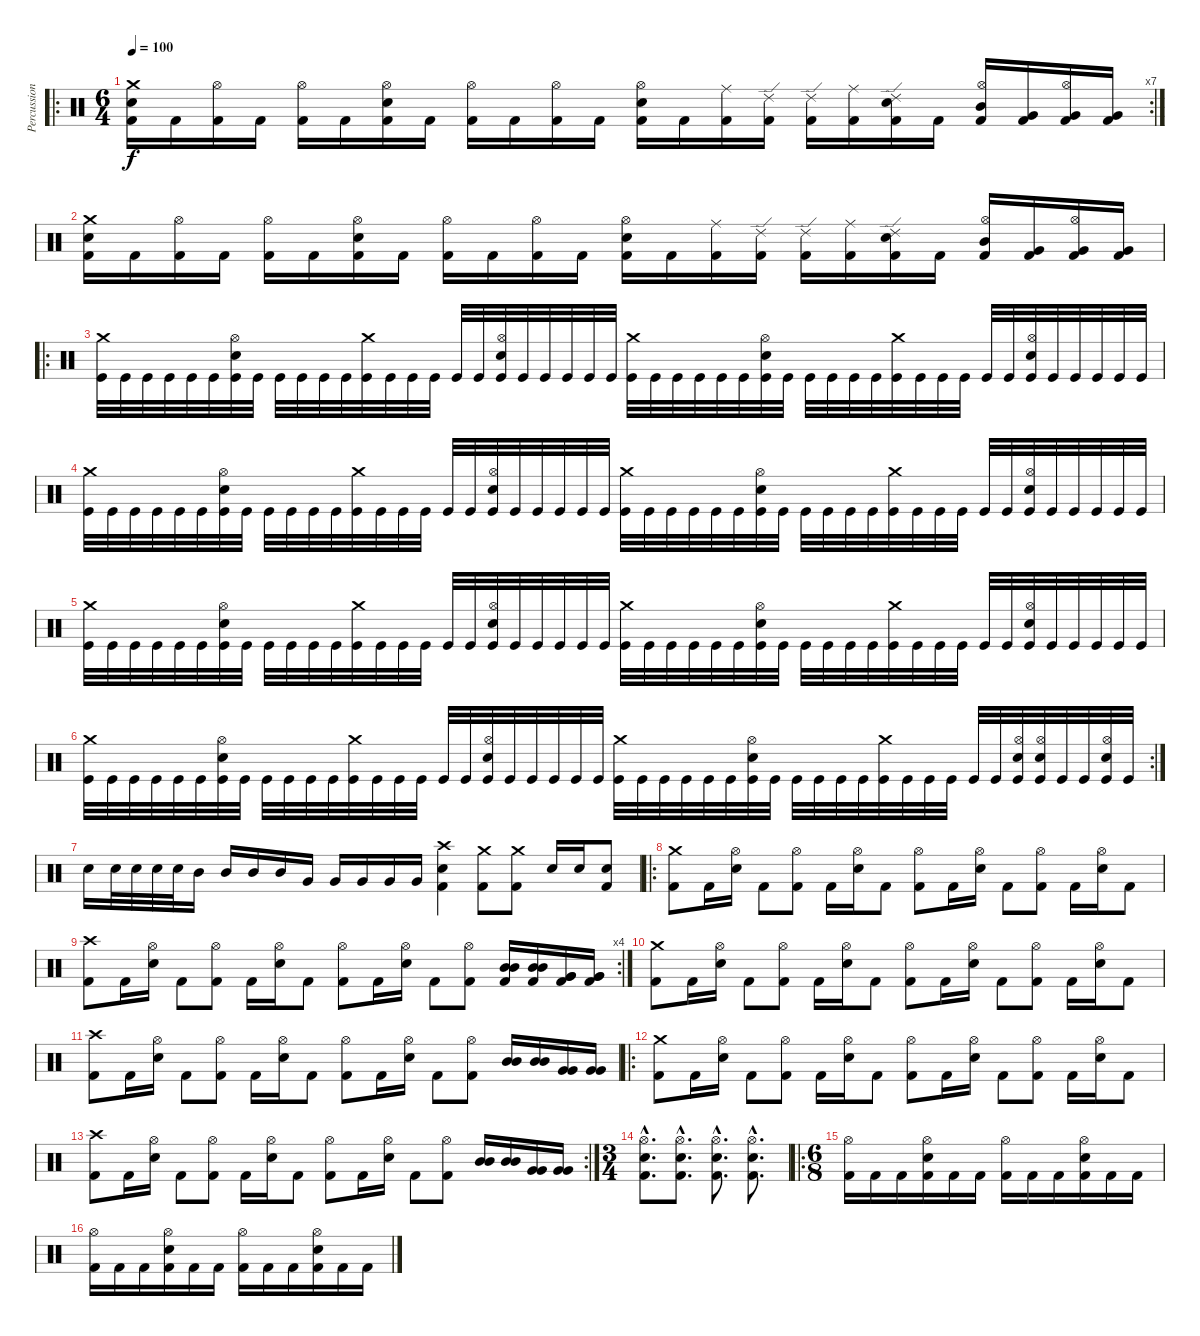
\track ("Percussion" "Percussion") {instrument percussion}
\staff {score}
\articulation defaults
\ro
\rc 7
\ts (6 4)
\tempo 100
\clef neutral
\ks c
("Crash medium (hit)" "Electric Snare (hit)" "Kick (hit) 2").16{dy f} "Kick (hit) 2".16 ("Hi-Hat (open)" "Kick (hit) 2").16 "Kick (hit) 2".16 ("Hi-Hat (open)" "Kick (hit) 2").16 "Kick (hit) 2".16 ("Hi-Hat (open)" "Electric Snare (hit)" "Kick (hit) 2").16 "Kick (hit) 2".16 ("Hi-Hat (open)" "Kick (hit) 2").16 "Kick (hit) 2".16 ("Hi-Hat (open)" "Kick (hit) 2").16 "Kick (hit) 2".16 ("Hi-Hat (open)" "Electric Snare (hit)" "Kick (hit) 2").16 "Kick (hit) 2".16 ("Ride (middle)" "Kick (hit) 2").16 ("Ride (edge) 2" "Kick (hit) 2").16 ("Ride (edge) 2" "Kick (hit) 2").16 ("Ride (middle)" "Kick (hit) 2").16 ("Ride (edge) 2" "Electric Snare (hit)" "Kick (hit) 2").16 "Kick (hit) 2".16 ("Hi-Hat (open)" "Mid Tom (hit)" "Kick (hit) 2").16 ("Very Low Tom (hit)" "Kick (hit) 2").16 ("Hi-Hat (open)" "Very Low Tom (hit)" "Kick (hit) 2").16 ("Very Low Tom (hit)" "Kick (hit) 2").16 |
("Crash medium (hit)" "Electric Snare (hit)" "Kick (hit) 2").16 "Kick (hit) 2".16 ("Hi-Hat (open)" "Kick (hit) 2").16 "Kick (hit) 2".16 ("Hi-Hat (open)" "Kick (hit) 2").16 "Kick (hit) 2".16 ("Hi-Hat (open)" "Electric Snare (hit)" "Kick (hit) 2").16 "Kick (hit) 2".16 ("Hi-Hat (open)" "Kick (hit) 2").16 "Kick (hit) 2".16 ("Hi-Hat (open)" "Kick (hit) 2").16 "Kick (hit) 2".16 ("Hi-Hat (open)" "Electric Snare (hit)" "Kick (hit) 2").16 "Kick (hit) 2".16 ("Ride (middle)" "Kick (hit) 2").16 ("Ride (edge) 2" "Kick (hit) 2").16 ("Ride (edge) 2" "Kick (hit) 2").16 ("Ride (middle)" "Kick (hit) 2").16 ("Ride (edge) 2" "Electric Snare (hit)" "Kick (hit) 2").16 "Kick (hit) 2".16 ("Hi-Hat (open)" "Mid Tom (hit)" "Kick (hit) 2").16 ("Very Low Tom (hit)" "Kick (hit) 2").16 ("Hi-Hat (open)" "Very Low Tom (hit)" "Kick (hit) 2").16 ("Very Low Tom (hit)" "Kick (hit) 2").16 |
\ro
("Crash medium (hit)" "Kick (hit)").32 "Kick (hit)".32 "Kick (hit)".32 "Kick (hit)".32 "Kick (hit)".32 "Kick (hit)".32 ("Electric Snare (hit)" "Hi-Hat (open)" "Kick (hit)").32 "Kick (hit)".32 "Kick (hit)".32 "Kick (hit)".32 "Kick (hit)".32 "Kick (hit)".32 ("Crash medium (hit)" "Kick (hit)").32 "Kick (hit)".32 "Kick (hit)".32 "Kick (hit)".32 "Kick (hit)".32 "Kick (hit)".32 ("Electric Snare (hit)" "Hi-Hat (open)" "Kick (hit)").32 "Kick (hit)".32 "Kick (hit)".32 "Kick (hit)".32 "Kick (hit)".32 "Kick (hit)".32 ("Crash medium (hit)" "Kick (hit)").32 "Kick (hit)".32 "Kick (hit)".32 "Kick (hit)".32 "Kick (hit)".32 "Kick (hit)".32 ("Electric Snare (hit)" "Hi-Hat (open)" "Kick (hit)").32 "Kick (hit)".32 "Kick (hit)".32 "Kick (hit)".32 "Kick (hit)".32 "Kick (hit)".32 ("Crash medium (hit)" "Kick (hit)").32 "Kick (hit)".32 "Kick (hit)".32 "Kick (hit)".32 "Kick (hit)".32 "Kick (hit)".32 ("Electric Snare (hit)" "Hi-Hat (open)" "Kick (hit)").32 "Kick (hit)".32 "Kick (hit)".32 "Kick (hit)".32 "Kick (hit)".32 "Kick (hit)".32 |
("Crash medium (hit)" "Kick (hit)").32 "Kick (hit)".32 "Kick (hit)".32 "Kick (hit)".32 "Kick (hit)".32 "Kick (hit)".32 ("Electric Snare (hit)" "Hi-Hat (open)" "Kick (hit)").32 "Kick (hit)".32 "Kick (hit)".32 "Kick (hit)".32 "Kick (hit)".32 "Kick (hit)".32 ("Crash medium (hit)" "Kick (hit)").32 "Kick (hit)".32 "Kick (hit)".32 "Kick (hit)".32 "Kick (hit)".32 "Kick (hit)".32 ("Electric Snare (hit)" "Hi-Hat (open)" "Kick (hit)").32 "Kick (hit)".32 "Kick (hit)".32 "Kick (hit)".32 "Kick (hit)".32 "Kick (hit)".32 ("Crash medium (hit)" "Kick (hit)").32 "Kick (hit)".32 "Kick (hit)".32 "Kick (hit)".32 "Kick (hit)".32 "Kick (hit)".32 ("Electric Snare (hit)" "Hi-Hat (open)" "Kick (hit)").32 "Kick (hit)".32 "Kick (hit)".32 "Kick (hit)".32 "Kick (hit)".32 "Kick (hit)".32 ("Crash medium (hit)" "Kick (hit)").32 "Kick (hit)".32 "Kick (hit)".32 "Kick (hit)".32 "Kick (hit)".32 "Kick (hit)".32 ("Electric Snare (hit)" "Hi-Hat (open)" "Kick (hit)").32 "Kick (hit)".32 "Kick (hit)".32 "Kick (hit)".32 "Kick (hit)".32 "Kick (hit)".32 |
("Crash medium (hit)" "Kick (hit)").32 "Kick (hit)".32 "Kick (hit)".32 "Kick (hit)".32 "Kick (hit)".32 "Kick (hit)".32 ("Electric Snare (hit)" "Hi-Hat (open)" "Kick (hit)").32 "Kick (hit)".32 "Kick (hit)".32 "Kick (hit)".32 "Kick (hit)".32 "Kick (hit)".32 ("Crash medium (hit)" "Kick (hit)").32 "Kick (hit)".32 "Kick (hit)".32 "Kick (hit)".32 "Kick (hit)".32 "Kick (hit)".32 ("Electric Snare (hit)" "Hi-Hat (open)" "Kick (hit)").32 "Kick (hit)".32 "Kick (hit)".32 "Kick (hit)".32 "Kick (hit)".32 "Kick (hit)".32 ("Crash medium (hit)" "Kick (hit)").32 "Kick (hit)".32 "Kick (hit)".32 "Kick (hit)".32 "Kick (hit)".32 "Kick (hit)".32 ("Electric Snare (hit)" "Hi-Hat (open)" "Kick (hit)").32 "Kick (hit)".32 "Kick (hit)".32 "Kick (hit)".32 "Kick (hit)".32 "Kick (hit)".32 ("Crash medium (hit)" "Kick (hit)").32 "Kick (hit)".32 "Kick (hit)".32 "Kick (hit)".32 "Kick (hit)".32 "Kick (hit)".32 ("Electric Snare (hit)" "Hi-Hat (open)" "Kick (hit)").32 "Kick (hit)".32 "Kick (hit)".32 "Kick (hit)".32 "Kick (hit)".32 "Kick (hit)".32 |
\rc 2
("Crash medium (hit)" "Kick (hit)").32 "Kick (hit)".32 "Kick (hit)".32 "Kick (hit)".32 "Kick (hit)".32 "Kick (hit)".32 ("Electric Snare (hit)" "Hi-Hat (open)" "Kick (hit)").32 "Kick (hit)".32 "Kick (hit)".32 "Kick (hit)".32 "Kick (hit)".32 "Kick (hit)".32 ("Crash medium (hit)" "Kick (hit)").32 "Kick (hit)".32 "Kick (hit)".32 "Kick (hit)".32 "Kick (hit)".32 "Kick (hit)".32 ("Electric Snare (hit)" "Hi-Hat (open)" "Kick (hit)").32 "Kick (hit)".32 "Kick (hit)".32 "Kick (hit)".32 "Kick (hit)".32 "Kick (hit)".32 ("Crash medium (hit)" "Kick (hit)").32 "Kick (hit)".32 "Kick (hit)".32 "Kick (hit)".32 "Kick (hit)".32 "Kick (hit)".32 ("Electric Snare (hit)" "Hi-Hat (open)" "Kick (hit)").32 "Kick (hit)".32 "Kick (hit)".32 "Kick (hit)".32 "Kick (hit)".32 "Kick (hit)".32 ("Crash medium (hit)" "Kick (hit)").32 "Kick (hit)".32 "Kick (hit)".32 "Kick (hit)".32 "Kick (hit)".32 "Kick (hit)".32 ("Electric Snare (hit)" "Hi-Hat (open)" "Kick (hit)").32 ("Electric Snare (hit)" "Hi-Hat (open)" "Kick (hit)").32 "Kick (hit)".32 "Kick (hit)".32 ("Hi-Hat (open)" "Electric Snare (hit)" "Kick (hit)").32 "Kick (hit)".32 |
"Electric Snare (hit)".16 "Electric Snare (hit)".32 "Electric Snare (hit)".32 "Electric Snare (hit)".32 "Electric Snare (hit)".32 "Mid Tom (hit)".16 "Mid Tom (hit)".16 "Mid Tom (hit)".16 "Mid Tom (hit)".16 "Very Low Tom (hit)".16 "Very Low Tom (hit)".16 "Very Low Tom (hit)".16 "Very Low Tom (hit)".16 "Very Low Tom (hit)".16 ("Crash high (hit)" "Electric Snare (hit)" "Kick (hit) 2").4 ("Crash medium (hit)" "Kick (hit) 2").8 ("Crash medium (hit)" "Kick (hit) 2").8 "Electric Snare (hit)".16 "Electric Snare (hit)".16 ("Electric Snare (hit)" "Kick (hit) 2").8 |
\ro
("Crash medium (hit)" "Kick (hit) 2").8 "Kick (hit) 2".16 ("Hi-Hat (open)" "Electric Snare (hit)").16 "Kick (hit) 2".8 ("Hi-Hat (open)" "Kick (hit) 2").8 "Kick (hit) 2".16 ("Hi-Hat (open)" "Electric Snare (hit)").16 "Kick (hit) 2".8 ("Hi-Hat (open)" "Kick (hit) 2").8 "Kick (hit) 2".16 ("Hi-Hat (open)" "Electric Snare (hit)").16 "Kick (hit) 2".8 ("Hi-Hat (open)" "Kick (hit) 2").8 "Kick (hit) 2".16 ("Hi-Hat (open)" "Electric Snare (hit)").16 "Kick (hit) 2".8 |
\rc 4
("Crash high (hit)" "Kick (hit) 2").8 "Kick (hit) 2".16 ("Hi-Hat (open)" "Electric Snare (hit)").16 "Kick (hit) 2".8 ("Hi-Hat (open)" "Kick (hit) 2").8 "Kick (hit) 2".16 ("Hi-Hat (open)" "Electric Snare (hit)").16 "Kick (hit) 2".8 ("Hi-Hat (open)" "Kick (hit) 2").8 "Kick (hit) 2".16 ("Hi-Hat (open)" "Electric Snare (hit)").16 "Kick (hit) 2".8 ("Hi-Hat (open)" "Kick (hit) 2").8 ("Mid Tom (hit)" "Mid Tom (hit)" "Kick (hit) 2").16 ("Mid Tom (hit)" "Mid Tom (hit)" "Kick (hit) 2").16 ("Very Low Tom (hit)" "Very Low Tom (hit)" "Kick (hit) 2").16 ("Very Low Tom (hit)" "Very Low Tom (hit)" "Kick (hit) 2").16 |
("Crash medium (hit)" "Kick (hit) 2").8 "Kick (hit) 2".16 ("Hi-Hat (open)" "Electric Snare (hit)").16 "Kick (hit) 2".8 ("Hi-Hat (open)" "Kick (hit) 2").8 "Kick (hit) 2".16 ("Hi-Hat (open)" "Electric Snare (hit)").16 "Kick (hit) 2".8 ("Hi-Hat (open)" "Kick (hit) 2").8 "Kick (hit) 2".16 ("Hi-Hat (open)" "Electric Snare (hit)").16 "Kick (hit) 2".8 ("Hi-Hat (open)" "Kick (hit) 2").8 "Kick (hit) 2".16 ("Hi-Hat (open)" "Electric Snare (hit)").16 "Kick (hit) 2".8 |
("Crash high (hit)" "Kick (hit) 2").8 "Kick (hit) 2".16 ("Hi-Hat (open)" "Electric Snare (hit)").16 "Kick (hit) 2".8 ("Hi-Hat (open)" "Kick (hit) 2").8 "Kick (hit) 2".16 ("Hi-Hat (open)" "Electric Snare (hit)").16 "Kick (hit) 2".8 ("Hi-Hat (open)" "Kick (hit) 2").8 "Kick (hit) 2".16 ("Hi-Hat (open)" "Electric Snare (hit)").16 "Kick (hit) 2".8 ("Hi-Hat (open)" "Kick (hit) 2").8 ("Mid Tom (hit)" "Mid Tom (hit)").16 ("Mid Tom (hit)" "Mid Tom (hit)").16 ("Very Low Tom (hit)" "Very Low Tom (hit)").16 ("Very Low Tom (hit)" "Very Low Tom (hit)").16 |
\ro
("Crash medium (hit)" "Kick (hit) 2").8 "Kick (hit) 2".16 ("Hi-Hat (open)" "Electric Snare (hit)").16 "Kick (hit) 2".8 ("Hi-Hat (open)" "Kick (hit) 2").8 "Kick (hit) 2".16 ("Hi-Hat (open)" "Electric Snare (hit)").16 "Kick (hit) 2".8 ("Hi-Hat (open)" "Kick (hit) 2").8 "Kick (hit) 2".16 ("Hi-Hat (open)" "Electric Snare (hit)").16 "Kick (hit) 2".8 ("Hi-Hat (open)" "Kick (hit) 2").8 "Kick (hit) 2".16 ("Hi-Hat (open)" "Electric Snare (hit)").16 "Kick (hit) 2".8 |
\rc 2
("Crash high (hit)" "Kick (hit) 2").8 "Kick (hit) 2".16 ("Hi-Hat (open)" "Electric Snare (hit)").16 "Kick (hit) 2".8 ("Hi-Hat (open)" "Kick (hit) 2").8 "Kick (hit) 2".16 ("Hi-Hat (open)" "Electric Snare (hit)").16 "Kick (hit) 2".8 ("Hi-Hat (open)" "Kick (hit) 2").8 "Kick (hit) 2".16 ("Hi-Hat (open)" "Electric Snare (hit)").16 "Kick (hit) 2".8 ("Hi-Hat (open)" "Kick (hit) 2").8 ("Mid Tom (hit)" "Mid Tom (hit)").16 ("Mid Tom (hit)" "Mid Tom (hit)").16 ("Very Low Tom (hit)" "Very Low Tom (hit)").16 ("Very Low Tom (hit)" "Very Low Tom (hit)").16 |
\ts (3 4)
("Hi-Hat (open)"{hac} "Electric Snare (hit)"{hac} "Kick (hit) 2"{hac}).8{d} ("Hi-Hat (open)"{hac} "Electric Snare (hit)"{hac} "Kick (hit) 2"{hac}).8{d} ("Hi-Hat (open)"{hac} "Electric Snare (hit)"{hac} "Kick (hit) 2"{hac}).8{d} ("Hi-Hat (open)"{hac} "Electric Snare (hit)"{hac} "Kick (hit) 2"{hac}).8{d} |
\ro
\ts (6 8)
("Hi-Hat (open)" "Kick (hit) 2").16 "Kick (hit) 2".16 "Kick (hit) 2".16 ("Hi-Hat (open)" "Electric Snare (hit)" "Kick (hit) 2").16 "Kick (hit) 2".16 "Kick (hit) 2".16 ("Hi-Hat (open)" "Kick (hit) 2").16 "Kick (hit) 2".16 "Kick (hit) 2".16 ("Hi-Hat (open)" "Electric Snare (hit)" "Kick (hit) 2").16 "Kick (hit) 2".16 "Kick (hit) 2".16 |
("Hi-Hat (open)" "Kick (hit) 2").16 "Kick (hit) 2".16 "Kick (hit) 2".16 ("Hi-Hat (open)" "Electric Snare (hit)" "Kick (hit) 2").16 "Kick (hit) 2".16 "Kick (hit) 2".16 ("Hi-Hat (open)" "Kick (hit) 2").16 "Kick (hit) 2".16 "Kick (hit) 2".16 ("Hi-Hat (open)" "Electric Snare (hit)" "Kick (hit) 2").16 "Kick (hit) 2".16 "Kick (hit) 2".16
